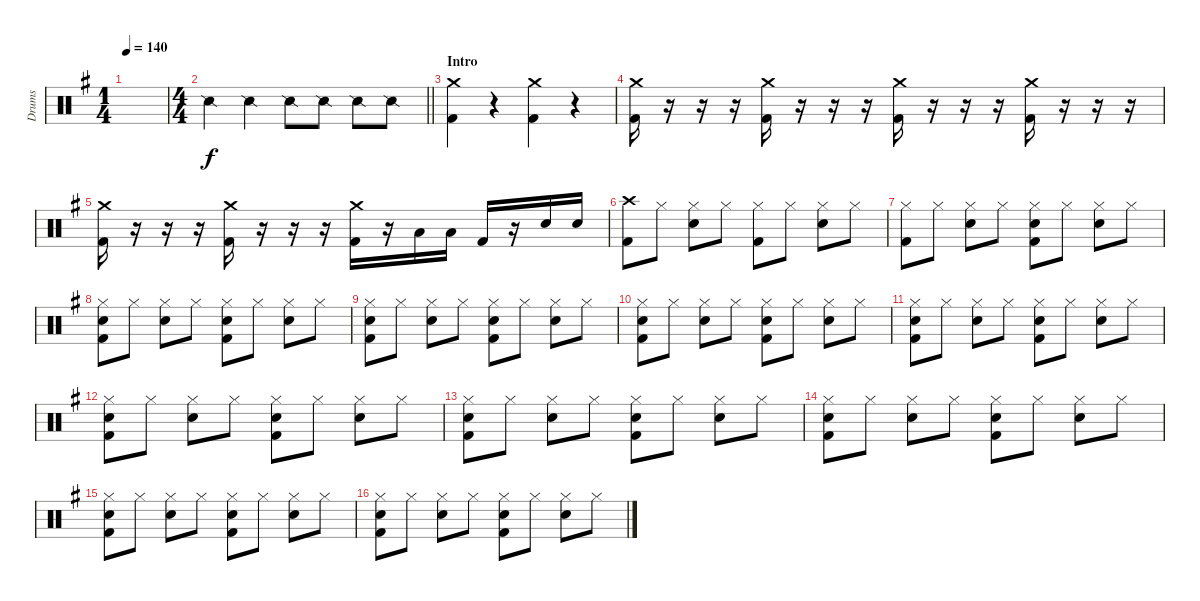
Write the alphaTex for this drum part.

\track ("Drums" "Drums") {instrument percussion}
\staff {score}
\articulation defaults
\ts (1 4)
\tempo 140
\clef neutral
\ks g
|
\ts (4 4)
\barLineRight lightlight "Snare (side stick) 2".4 "Snare (side stick) 2".4 "Snare (side stick) 2".8 "Snare (side stick) 2".8 "Snare (side stick) 2".8 "Snare (side stick) 2".8
|
\section ("" "Intro")
("Crash medium (hit)" "Kick (hit) 2").4 r.4 ("Crash medium (hit)" "Kick (hit) 2").4 r.4 |
("Crash medium (hit)" "Kick (hit) 2").16 r.16 r.16 r.16 ("Crash medium (hit)" "Kick (hit) 2").16 r.16 r.16 r.16 ("Crash medium (hit)" "Kick (hit) 2").16 r.16 r.16 r.16 ("Crash medium (hit)" "Kick (hit) 2").16 r.16 r.16 r.16 |
("Crash medium (hit)" "Kick (hit) 2").16 r.16 r.16 r.16 ("Crash medium (hit)" "Kick (hit) 2").16 r.16 r.16 r.16 ("Crash medium (hit)" "Kick (hit) 2").16 r.16 "Low Tom (hit)".16 "Low Tom (hit)".16 "Kick (hit) 2".16 r.16 "Snare (hit) 2".16 "Snare (hit) 2".16 |
("Crash high (hit)" "Kick (hit) 2").8 "Hi-Hat (closed)".8 ("Hi-Hat (closed)" "Snare (hit) 2").8 "Hi-Hat (closed)".8 ("Hi-Hat (closed)" "Kick (hit) 2").8 "Hi-Hat (closed)".8 ("Hi-Hat (closed)" "Snare (hit) 2").8 "Hi-Hat (closed)".8 |
("Hi-Hat (closed)" "Kick (hit) 2").8 "Hi-Hat (closed)".8 ("Hi-Hat (closed)" "Snare (hit) 2").8 "Hi-Hat (closed)".8 ("Hi-Hat (closed)" "Snare (hit) 2" "Kick (hit) 2").8 "Hi-Hat (closed)".8 ("Hi-Hat (closed)" "Snare (hit) 2").8 "Hi-Hat (closed)".8 |
("Hi-Hat (closed)" "Snare (hit) 2" "Kick (hit) 2").8 "Hi-Hat (closed)".8 ("Hi-Hat (closed)" "Snare (hit) 2").8 "Hi-Hat (closed)".8 ("Hi-Hat (closed)" "Snare (hit) 2" "Kick (hit) 2").8 "Hi-Hat (closed)".8 ("Hi-Hat (closed)" "Snare (hit) 2").8 "Hi-Hat (closed)".8 |
("Hi-Hat (closed)" "Snare (hit) 2" "Kick (hit) 2").8 "Hi-Hat (closed)".8 ("Hi-Hat (closed)" "Snare (hit) 2").8 "Hi-Hat (closed)".8 ("Hi-Hat (closed)" "Snare (hit) 2" "Kick (hit) 2").8 "Hi-Hat (closed)".8 ("Hi-Hat (closed)" "Snare (hit) 2").8 "Hi-Hat (closed)".8 |
("Hi-Hat (closed)" "Snare (hit) 2" "Kick (hit) 2").8 "Hi-Hat (closed)".8 ("Hi-Hat (closed)" "Snare (hit) 2").8 "Hi-Hat (closed)".8 ("Hi-Hat (closed)" "Snare (hit) 2" "Kick (hit) 2").8 "Hi-Hat (closed)".8 ("Hi-Hat (closed)" "Snare (hit) 2").8 "Hi-Hat (closed)".8 |
("Hi-Hat (closed)" "Snare (hit) 2" "Kick (hit) 2").8 "Hi-Hat (closed)".8 ("Hi-Hat (closed)" "Snare (hit) 2").8 "Hi-Hat (closed)".8 ("Hi-Hat (closed)" "Snare (hit) 2" "Kick (hit) 2").8 "Hi-Hat (closed)".8 ("Hi-Hat (closed)" "Snare (hit) 2").8 "Hi-Hat (closed)".8 |
("Hi-Hat (closed)" "Snare (hit) 2" "Kick (hit) 2").8 "Hi-Hat (closed)".8 ("Hi-Hat (closed)" "Snare (hit) 2").8 "Hi-Hat (closed)".8 ("Hi-Hat (closed)" "Snare (hit) 2" "Kick (hit) 2").8 "Hi-Hat (closed)".8 ("Hi-Hat (closed)" "Snare (hit) 2").8 "Hi-Hat (closed)".8 |
("Hi-Hat (closed)" "Snare (hit) 2" "Kick (hit) 2").8 "Hi-Hat (closed)".8 ("Hi-Hat (closed)" "Snare (hit) 2").8 "Hi-Hat (closed)".8 ("Hi-Hat (closed)" "Snare (hit) 2" "Kick (hit) 2").8 "Hi-Hat (closed)".8 ("Hi-Hat (closed)" "Snare (hit) 2").8 "Hi-Hat (closed)".8 |
("Hi-Hat (closed)" "Snare (hit) 2" "Kick (hit) 2").8 "Hi-Hat (closed)".8 ("Hi-Hat (closed)" "Snare (hit) 2").8 "Hi-Hat (closed)".8 ("Hi-Hat (closed)" "Snare (hit) 2" "Kick (hit) 2").8 "Hi-Hat (closed)".8 ("Hi-Hat (closed)" "Snare (hit) 2").8 "Hi-Hat (closed)".8 |
("Hi-Hat (closed)" "Snare (hit) 2" "Kick (hit) 2").8 "Hi-Hat (closed)".8 ("Hi-Hat (closed)" "Snare (hit) 2").8 "Hi-Hat (closed)".8 ("Hi-Hat (closed)" "Snare (hit) 2" "Kick (hit) 2").8 "Hi-Hat (closed)".8 ("Hi-Hat (closed)" "Snare (hit) 2").8 "Hi-Hat (closed)".8 |
("Hi-Hat (closed)" "Snare (hit) 2" "Kick (hit) 2").8 "Hi-Hat (closed)".8 ("Hi-Hat (closed)" "Snare (hit) 2").8 "Hi-Hat (closed)".8 ("Hi-Hat (closed)" "Snare (hit) 2" "Kick (hit) 2").8 "Hi-Hat (closed)".8 ("Hi-Hat (closed)" "Snare (hit) 2").8 "Hi-Hat (closed)".8
